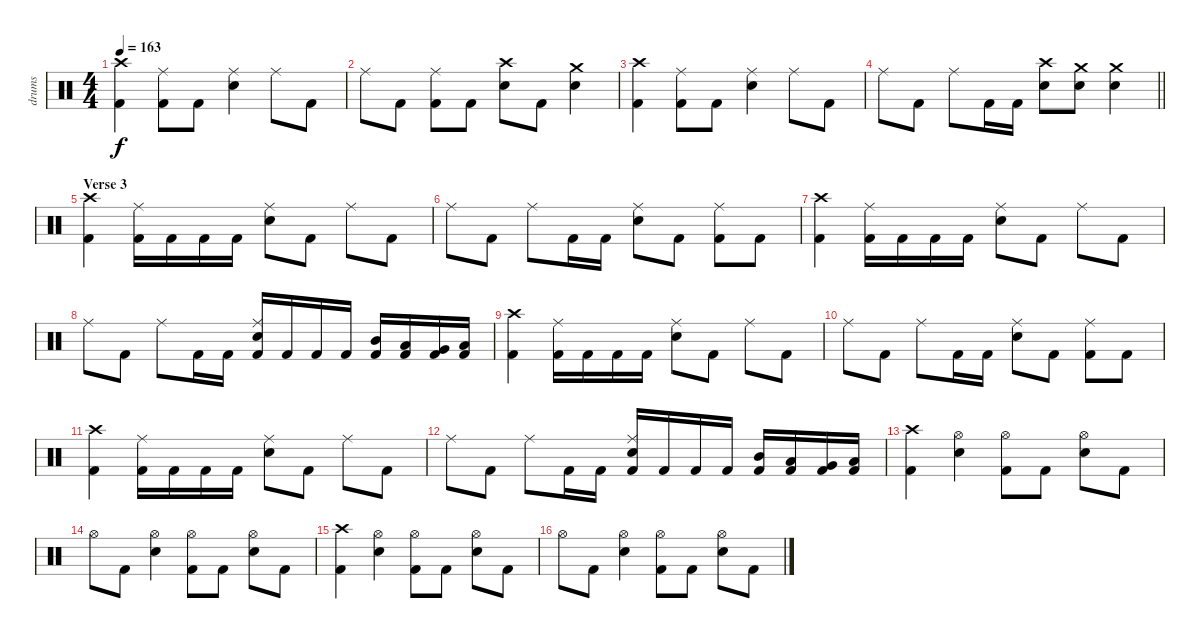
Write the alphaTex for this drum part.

\track ("drums" "drums") {instrument percussion}
\staff {score}
\articulation defaults
\ts (4 4)
\tempo 163
\clef neutral
\ks c
("Crash high (hit)" "Kick (hit) 2").4{dy f} ("Ride (middle)" "Kick (hit) 2").8 "Kick (hit) 2".8 ("Ride (middle)" "Snare (hit) 2").4 "Ride (middle)".8 "Kick (hit) 2".8 |
"Ride (middle)".8 "Kick (hit) 2".8 ("Ride (middle)" "Kick (hit) 2").8 "Kick (hit) 2".8 ("Crash high (hit)" "Snare (hit) 2").8 "Kick (hit) 2".8 ("Crash medium (hit)" "Snare (hit) 2").4 |
("Crash high (hit)" "Kick (hit) 2").4 ("Ride (middle)" "Kick (hit) 2").8 "Kick (hit) 2".8 ("Ride (middle)" "Snare (hit) 2").4 "Ride (middle)".8 "Kick (hit) 2".8 |
\barLineRight lightlight "Ride (middle)".8 "Kick (hit) 2".8 "Ride (middle)".8 "Kick (hit) 2".16 "Kick (hit) 2".16
("Crash high (hit)" "Snare (hit) 2").8 ("Crash medium (hit)" "Snare (hit) 2").8 ("Crash medium (hit)" "Snare (hit) 2").4 |
\section ("" "Verse 3")
("Crash high (hit)" "Kick (hit) 2").4 ("Ride (middle)" "Kick (hit) 2").16 "Kick (hit) 2".16 "Kick (hit) 2".16 "Kick (hit) 2".16 ("Ride (middle)" "Snare (hit) 2").8 "Kick (hit) 2".8 "Ride (middle)".8 "Kick (hit) 2".8 |
"Ride (middle)".8 "Kick (hit) 2".8 "Ride (middle)".8 "Kick (hit) 2".16 "Kick (hit) 2".16 ("Ride (middle)" "Snare (hit) 2").8 "Kick (hit) 2".8 ("Ride (middle)" "Kick (hit) 2").8 "Kick (hit) 2".8 |
("Crash high (hit)" "Kick (hit) 2").4 ("Ride (middle)" "Kick (hit) 2").16 "Kick (hit) 2".16 "Kick (hit) 2".16 "Kick (hit) 2".16 ("Ride (middle)" "Snare (hit) 2").8 "Kick (hit) 2".8 "Ride (middle)".8 "Kick (hit) 2".8 |
"Ride (middle)".8 "Kick (hit) 2".8 "Ride (middle)".8 "Kick (hit) 2".16 "Kick (hit) 2".16 ("Ride (middle)" "Snare (hit) 2" "Kick (hit) 2").16 "Kick (hit) 2".16 "Kick (hit) 2".16 "Kick (hit) 2".16 ("Mid Tom (hit)" "Kick (hit) 2").16 ("Low Tom (hit)" "Kick (hit) 2").16 ("Very Low Tom (hit)" "Kick (hit) 2").16 ("Low Floor Tom (hit)" "Kick (hit) 2").16 |
("Crash high (hit)" "Kick (hit) 2").4 ("Ride (middle)" "Kick (hit) 2").16 "Kick (hit) 2".16 "Kick (hit) 2".16 "Kick (hit) 2".16 ("Ride (middle)" "Snare (hit) 2").8 "Kick (hit) 2".8 "Ride (middle)".8 "Kick (hit) 2".8 |
"Ride (middle)".8 "Kick (hit) 2".8 "Ride (middle)".8 "Kick (hit) 2".16 "Kick (hit) 2".16 ("Ride (middle)" "Snare (hit) 2").8 "Kick (hit) 2".8 ("Ride (middle)" "Kick (hit) 2").8 "Kick (hit) 2".8 |
("Crash high (hit)" "Kick (hit) 2").4 ("Ride (middle)" "Kick (hit) 2").16 "Kick (hit) 2".16 "Kick (hit) 2".16 "Kick (hit) 2".16 ("Ride (middle)" "Snare (hit) 2").8 "Kick (hit) 2".8 "Ride (middle)".8 "Kick (hit) 2".8 |
"Ride (middle)".8 "Kick (hit) 2".8 "Ride (middle)".8 "Kick (hit) 2".16 "Kick (hit) 2".16 ("Ride (middle)" "Snare (hit) 2" "Kick (hit) 2").16 "Kick (hit) 2".16 "Kick (hit) 2".16 "Kick (hit) 2".16 ("Mid Tom (hit)" "Kick (hit) 2").16 ("Low Tom (hit)" "Kick (hit) 2").16 ("Very Low Tom (hit)" "Kick (hit) 2").16 ("Low Floor Tom (hit)" "Kick (hit) 2").16 |
("Crash high (hit)" "Kick (hit) 2").4 ("Hi-Hat (open)" "Snare (hit) 2").4 ("Hi-Hat (open)" "Kick (hit) 2").8 "Kick (hit) 2".8 ("Hi-Hat (open)" "Snare (hit) 2").8 "Kick (hit) 2".8 |
"Hi-Hat (open)".8 "Kick (hit) 2".8 ("Hi-Hat (open)" "Snare (hit) 2").4 ("Hi-Hat (open)" "Kick (hit) 2").8 "Kick (hit) 2".8 ("Hi-Hat (open)" "Snare (hit) 2").8 "Kick (hit) 2".8 |
("Crash high (hit)" "Kick (hit) 2").4 ("Hi-Hat (open)" "Snare (hit) 2").4 ("Hi-Hat (open)" "Kick (hit) 2").8 "Kick (hit) 2".8 ("Hi-Hat (open)" "Snare (hit) 2").8 "Kick (hit) 2".8 |
"Hi-Hat (open)".8 "Kick (hit) 2".8 ("Hi-Hat (open)" "Snare (hit) 2").4 ("Hi-Hat (open)" "Kick (hit) 2").8 "Kick (hit) 2".8 ("Hi-Hat (open)" "Snare (hit) 2").8 "Kick (hit) 2".8
